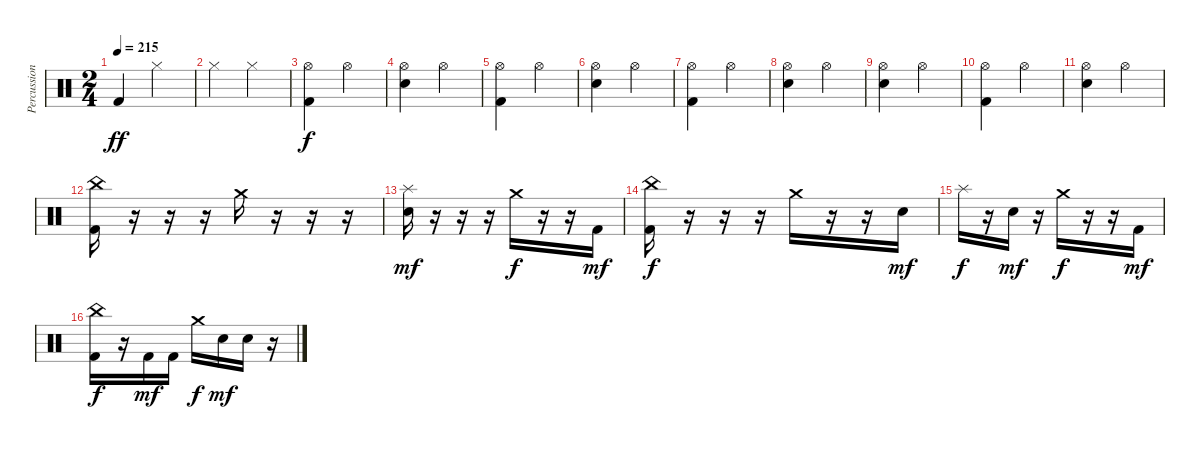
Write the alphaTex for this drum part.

\track ("Percussion" "Percussion") {instrument percussion}
\staff {score}
\articulation defaults
\ts (2 4)
\tempo 215
\clef neutral
\ks c "Kick (hit) 2".4{dy ff} "Hi-Hat (closed)".4
|
"Hi-Hat (closed)".4 "Hi-Hat (closed)".4 |
("Kick (hit) 2" "Hi-Hat (open)").4{dy f} "Hi-Hat (open)".4 |
("Snare (hit) 2" "Hi-Hat (open)").4 "Hi-Hat (open)".4 |
("Kick (hit) 2" "Hi-Hat (open)").4 "Hi-Hat (open)".4 |
("Snare (hit) 2" "Hi-Hat (open)").4 "Hi-Hat (open)".4 |
("Kick (hit) 2" "Hi-Hat (open)").4 "Hi-Hat (open)".4 |
("Snare (hit) 2" "Hi-Hat (open)").4 "Hi-Hat (open)".4 |
("Snare (hit) 2" "Hi-Hat (open)").4 "Hi-Hat (open)".4 |
("Kick (hit) 2" "Hi-Hat (open)").4 "Hi-Hat (open)".4 |
("Snare (hit) 2" "Hi-Hat (open)").4 "Hi-Hat (open)".4 |
("Kick (hit) 2" "China (hit)").16 r.16 r.16 r.16 "Crash medium (hit)".16 r.16 r.16 r.16 |
("Snare (hit) 2" "Splash (hit)").16{dy mf} r.16 r.16 r.16 "Crash medium (hit)".16{dy f} r.16 r.16 "Kick (hit) 2".16{dy mf} |
("Kick (hit) 2" "China (hit)").16{dy f} r.16 r.16 r.16 "Crash medium (hit)".16 r.16 r.16 "Snare (hit) 2".16{dy mf} |
"Splash (hit)".16{dy f} r.16 "Snare (hit) 2".16{dy mf} r.16 "Crash medium (hit)".16{dy f} r.16 r.16 "Kick (hit) 2".16{dy mf} |
("Kick (hit) 2" "China (hit)").16{dy f} r.16 "Kick (hit) 2".16{dy mf} "Kick (hit) 2".16 "Crash medium (hit)".16{dy f} "Snare (hit) 2".16{dy mf} "Snare (hit) 2".16 r.16
